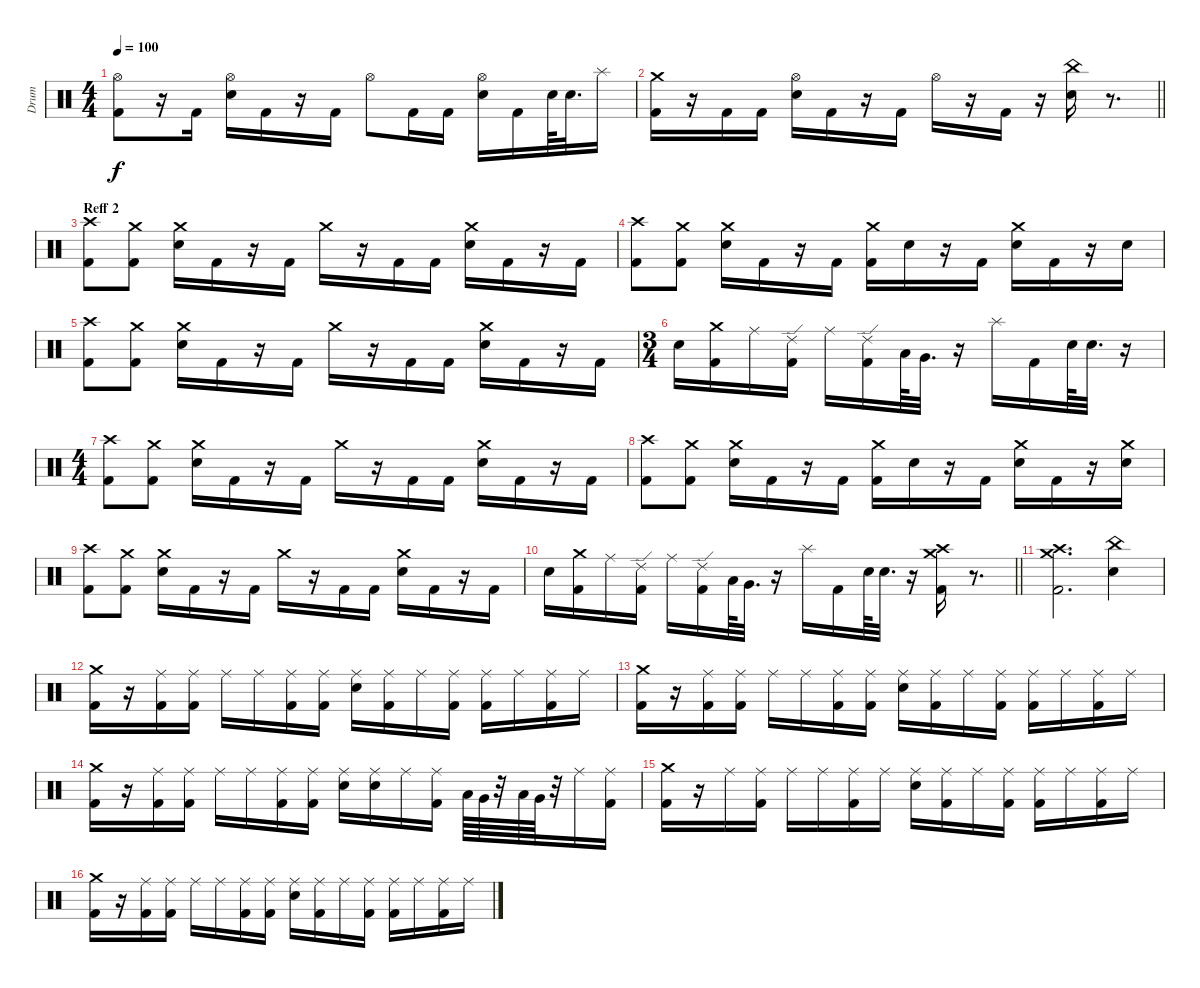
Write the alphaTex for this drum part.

\track ("Drum" "Drum") {instrument percussion}
\staff {score}
\articulation defaults
\ts (4 4)
\tempo 100
\clef neutral
\ks c
("Hi-Hat (open)" "Kick (hit) 2").8{dy f} r.16 "Kick (hit) 2".16 ("Hi-Hat (open)" "Electric Snare (hit)").16 "Kick (hit) 2".16 r.16 "Kick (hit) 2".16 "Hi-Hat (open)".8 "Kick (hit) 2".16 "Kick (hit) 2".16 ("Hi-Hat (open)" "Electric Snare (hit)").16 "Kick (hit) 2".16 "Electric Snare (hit)".64 "Electric Snare (hit)".32{d} "Splash (hit)".16 |
\barLineRight lightlight
("Crash medium (hit)" "Kick (hit) 2").16 r.16 "Kick (hit) 2".16 "Kick (hit) 2".16 ("Hi-Hat (open)" "Electric Snare (hit)").16 "Kick (hit) 2".16 r.16 "Kick (hit) 2".16 "Hi-Hat (open)".16 r.16 "Kick (hit) 2".16 r.16 ("China (hit)" "Electric Snare (hit)").16 r.8{d} |
\section ("" "Reff 2")
("Crash high (hit)" "Kick (hit) 2").8 ("Crash medium (hit)" "Kick (hit) 2").8 ("Crash medium (hit)" "Electric Snare (hit)").16 "Kick (hit) 2".16 r.16 "Kick (hit) 2".16 "Crash medium (hit)".16 r.16 "Kick (hit) 2".16 "Kick (hit) 2".16 ("Crash medium (hit)" "Electric Snare (hit)").16 "Kick (hit) 2".16 r.16 "Kick (hit) 2".16 |
("Crash high (hit)" "Kick (hit) 2").8 ("Crash medium (hit)" "Kick (hit) 2").8 ("Crash medium (hit)" "Electric Snare (hit)").16 "Kick (hit) 2".16 r.16 "Kick (hit) 2".16 ("Crash medium (hit)" "Kick (hit) 2").16 "Electric Snare (hit)".16 r.16 "Kick (hit) 2".16 ("Crash medium (hit)" "Electric Snare (hit)").16 "Kick (hit) 2".16 r.16 "Electric Snare (hit)".16 |
("Crash high (hit)" "Kick (hit) 2").8 ("Crash medium (hit)" "Kick (hit) 2").8 ("Crash medium (hit)" "Electric Snare (hit)").16 "Kick (hit) 2".16 r.16 "Kick (hit) 2".16 "Crash medium (hit)".16 r.16 "Kick (hit) 2".16 "Kick (hit) 2".16 ("Crash medium (hit)" "Electric Snare (hit)").16 "Kick (hit) 2".16 r.16 "Kick (hit) 2".16 |
\ts (3 4)
"Electric Snare (hit)".16 ("Crash medium (hit)" "Kick (hit) 2").16 "Ride (middle)".16 ("Ride (edge) 2" "Kick (hit) 2").16 "Ride (middle)".16 ("Ride (edge) 2" "Kick (hit) 2").16 "Low Tom (hit)".64 "Very Low Tom (hit)".32{d} r.16 "Splash (hit)".16 "Kick (hit) 2".16 "Electric Snare (hit)".64 "Electric Snare (hit)".32{d} r.16 |
\ts (4 4)
("Crash high (hit)" "Kick (hit) 2").8 ("Crash medium (hit)" "Kick (hit) 2").8 ("Crash medium (hit)" "Electric Snare (hit)").16 "Kick (hit) 2".16 r.16 "Kick (hit) 2".16 "Crash medium (hit)".16 r.16 "Kick (hit) 2".16 "Kick (hit) 2".16 ("Crash medium (hit)" "Electric Snare (hit)").16 "Kick (hit) 2".16 r.16 "Kick (hit) 2".16 |
("Crash high (hit)" "Kick (hit) 2").8 ("Crash medium (hit)" "Kick (hit) 2").8 ("Crash medium (hit)" "Electric Snare (hit)").16 "Kick (hit) 2".16 r.16 "Kick (hit) 2".16 ("Crash medium (hit)" "Kick (hit) 2").16 "Electric Snare (hit)".16 r.16 "Kick (hit) 2".16 ("Crash medium (hit)" "Electric Snare (hit)").16 "Kick (hit) 2".16 r.16 ("Crash medium (hit)" "Electric Snare (hit)").16 |
("Crash high (hit)" "Kick (hit) 2").8 ("Crash medium (hit)" "Kick (hit) 2").8 ("Crash medium (hit)" "Electric Snare (hit)").16 "Kick (hit) 2".16 r.16 "Kick (hit) 2".16 "Crash medium (hit)".16 r.16 "Kick (hit) 2".16 "Kick (hit) 2".16 ("Crash medium (hit)" "Electric Snare (hit)").16 "Kick (hit) 2".16 r.16 "Kick (hit) 2".16 |
\barLineRight lightlight "Electric Snare (hit)".16
("Crash medium (hit)" "Kick (hit) 2").16 "Ride (middle)".16 ("Ride (edge) 2" "Kick (hit) 2").16 "Ride (middle)".16 ("Ride (edge) 2" "Kick (hit) 2").16 "Low Tom (hit)".64 "Very Low Tom (hit)".32{d} r.16 "Splash (hit)".16 "Kick (hit) 2".16 "Electric Snare (hit)".64 "Electric Snare (hit)".32{d} r.16 ("Crash high (hit)" "Crash medium (hit)" "Kick (hit) 2").16 r.8{d} |
("Crash medium (hit)" "Crash high (hit)" "Kick (hit) 2").2{d} ("China (hit)" "Electric Snare (hit)").4 |
("Crash medium (hit)" "Kick (hit) 2").16 r.16 ("Ride (middle)" "Kick (hit) 2").16 ("Ride (middle)" "Kick (hit) 2").16 "Ride (middle)".16 "Ride (middle)".16 ("Ride (middle)" "Kick (hit) 2").16 ("Ride (middle)" "Kick (hit) 2").16 ("Ride (middle)" "Electric Snare (hit)").16 ("Ride (middle)" "Kick (hit) 2").16 "Ride (middle)".16 ("Ride (middle)" "Kick (hit) 2").16 ("Ride (middle)" "Kick (hit) 2").16 "Ride (middle)".16 ("Ride (middle)" "Kick (hit) 2").16 "Ride (middle)".16 |
("Crash medium (hit)" "Kick (hit) 2").16 r.16 ("Ride (middle)" "Kick (hit) 2").16 ("Ride (middle)" "Kick (hit) 2").16 "Ride (middle)".16 "Ride (middle)".16 ("Ride (middle)" "Kick (hit) 2").16 ("Ride (middle)" "Kick (hit) 2").16 ("Ride (middle)" "Electric Snare (hit)").16 ("Ride (middle)" "Kick (hit) 2").16 "Ride (middle)".16 ("Ride (middle)" "Kick (hit) 2").16 ("Ride (middle)" "Kick (hit) 2").16 "Ride (middle)".16 ("Ride (middle)" "Kick (hit) 2").16 "Ride (middle)".16 |
("Crash medium (hit)" "Kick (hit) 2").16 r.16 ("Ride (middle)" "Kick (hit) 2").16 ("Ride (middle)" "Kick (hit) 2").16 "Ride (middle)".16 "Ride (middle)".16 ("Ride (middle)" "Kick (hit) 2").16 ("Ride (middle)" "Kick (hit) 2").16 ("Ride (middle)" "Electric Snare (hit)").16 ("Ride (middle)" "Electric Snare (hit)").16 "Ride (middle)".16 ("Ride (middle)" "Kick (hit) 2").16 "Low Tom (hit)".64 "Very Low Tom (hit)".64 r.32 "Low Tom (hit)".64 "Very Low Tom (hit)".64 r.32 "Ride (middle)".16 ("Ride (middle)" "Kick (hit) 2").16 |
("Crash medium (hit)" "Kick (hit) 2").16 r.16 "Ride (middle)".16 ("Ride (middle)" "Kick (hit) 2").16 "Ride (middle)".16 "Ride (middle)".16 ("Ride (middle)" "Kick (hit) 2").16 "Ride (middle)".16 ("Ride (middle)" "Electric Snare (hit)").16 ("Ride (middle)" "Kick (hit) 2").16 "Ride (middle)".16 ("Ride (middle)" "Kick (hit) 2").16 ("Ride (middle)" "Kick (hit) 2").16 "Ride (middle)".16 ("Ride (middle)" "Kick (hit) 2").16 "Ride (middle)".16 |
("Crash medium (hit)" "Kick (hit) 2").16 r.16 ("Ride (middle)" "Kick (hit) 2").16 ("Ride (middle)" "Kick (hit) 2").16 "Ride (middle)".16 "Ride (middle)".16 ("Ride (middle)" "Kick (hit) 2").16 ("Ride (middle)" "Kick (hit) 2").16 ("Ride (middle)" "Electric Snare (hit)").16 ("Ride (middle)" "Kick (hit) 2").16 "Ride (middle)".16 ("Ride (middle)" "Kick (hit) 2").16 ("Ride (middle)" "Kick (hit) 2").16 "Ride (middle)".16 ("Ride (middle)" "Kick (hit) 2").16 "Ride (middle)".16
